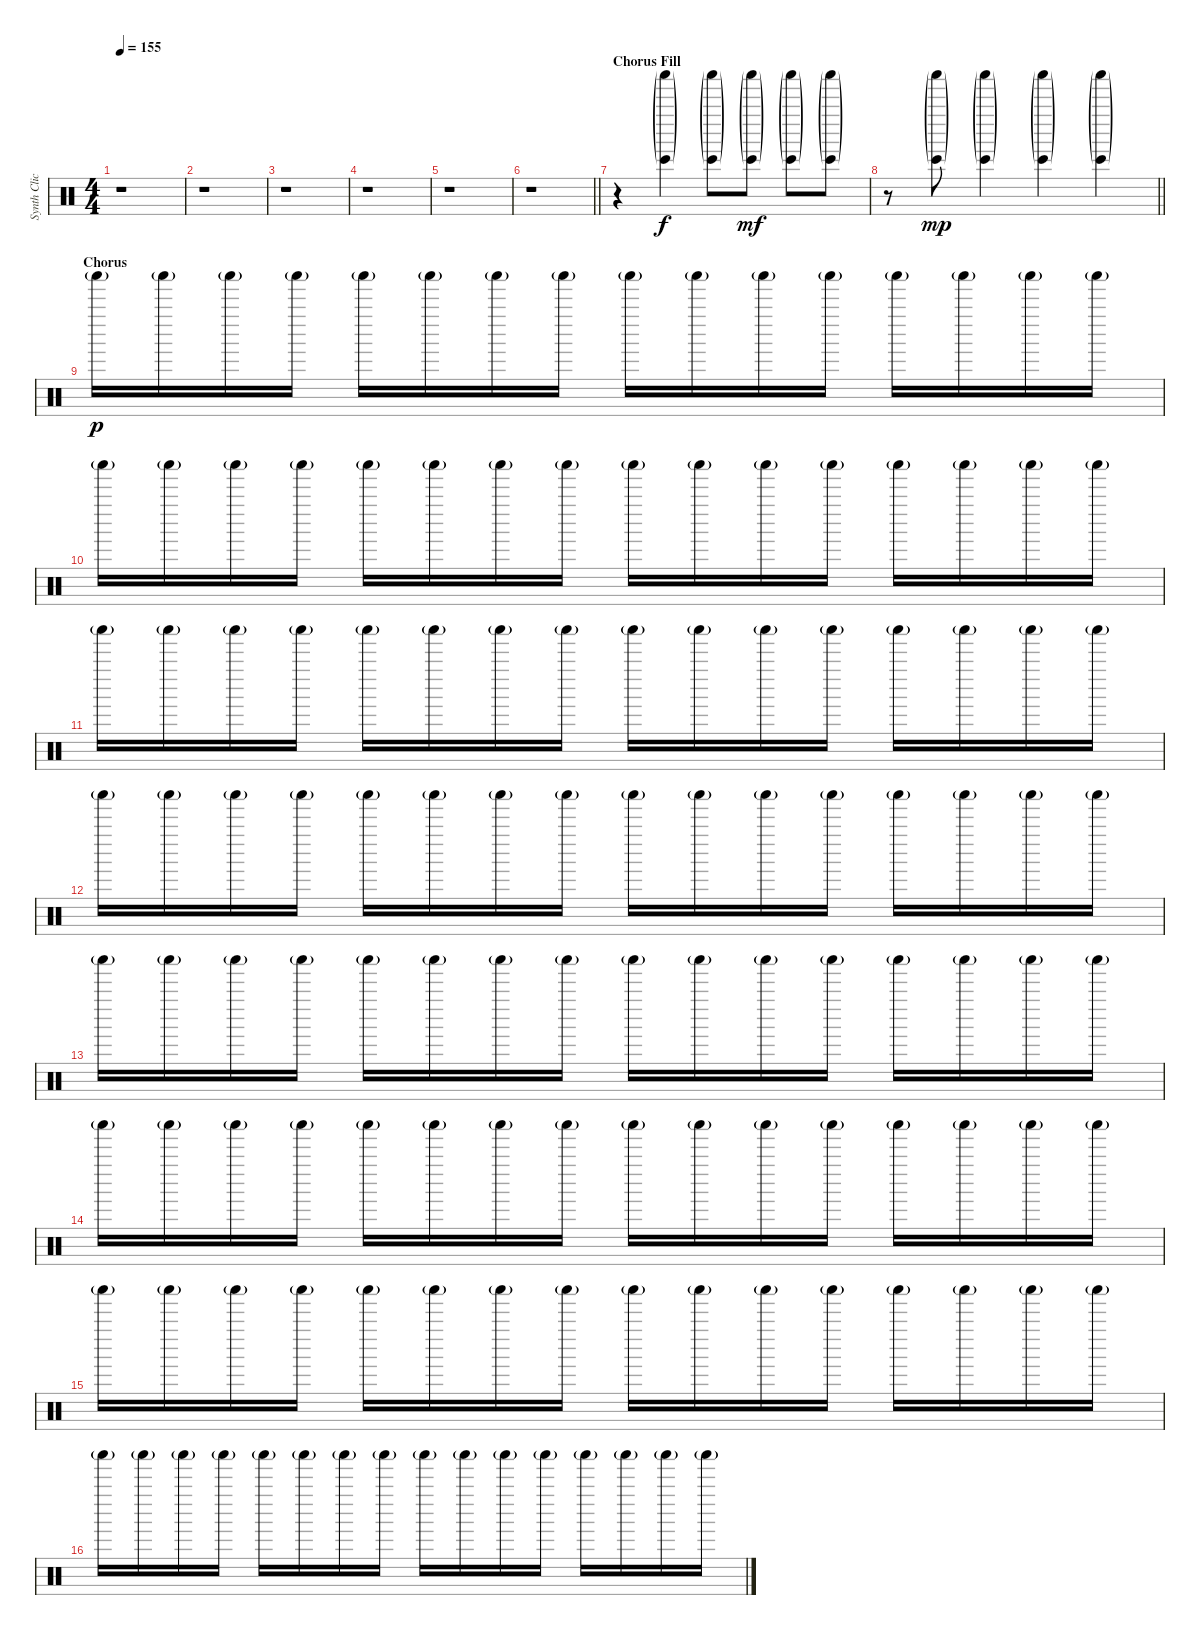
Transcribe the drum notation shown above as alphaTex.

\track ("Synth Click" "Synth Clic") {instrument percussion}
\staff {score}
\articulation defaults
\ts (4 4)
\tempo 155
\clef neutral
\ks c
r.1{dy p} |
r.1 |
r.1 |
r.1 |
r.1 |
\barLineRight lightlight
r.1 |
\section ("" "Chorus Fill")
r.4 ("Bongo High (hit)"{g} "Shaker (hit)"{g}).4{dy f} ("Bongo High (hit)"{g} "Shaker (hit)"{g}).8 ("Bongo High (hit)"{g} "Shaker (hit)"{g}).8{dy mf} ("Bongo High (hit)"{g} "Shaker (hit)"{g}).8 ("Bongo High (hit)"{g} "Shaker (hit)"{g}).8 |
\barLineRight lightlight
r.8 ("Bongo High (hit)"{g} "Shaker (hit)"{g}).8{dy mp} ("Bongo High (hit)"{g} "Shaker (hit)"{g}).4 ("Bongo High (hit)"{g} "Shaker (hit)"{g}).4 ("Bongo High (hit)"{g} "Shaker (hit)"{g}).4 |
\section ("" "Chorus")
"Shaker (hit)"{g}.16{dy p} "Shaker (hit)"{g}.16 "Shaker (hit)"{g}.16 "Shaker (hit)"{g}.16 "Shaker (hit)"{g}.16 "Shaker (hit)"{g}.16 "Shaker (hit)"{g}.16 "Shaker (hit)"{g}.16 "Shaker (hit)"{g}.16 "Shaker (hit)"{g}.16 "Shaker (hit)"{g}.16 "Shaker (hit)"{g}.16 "Shaker (hit)"{g}.16 "Shaker (hit)"{g}.16 "Shaker (hit)"{g}.16 "Shaker (hit)"{g}.16 |
"Shaker (hit)"{g}.16 "Shaker (hit)"{g}.16 "Shaker (hit)"{g}.16 "Shaker (hit)"{g}.16 "Shaker (hit)"{g}.16 "Shaker (hit)"{g}.16 "Shaker (hit)"{g}.16 "Shaker (hit)"{g}.16 "Shaker (hit)"{g}.16 "Shaker (hit)"{g}.16 "Shaker (hit)"{g}.16 "Shaker (hit)"{g}.16 "Shaker (hit)"{g}.16 "Shaker (hit)"{g}.16 "Shaker (hit)"{g}.16 "Shaker (hit)"{g}.16 |
"Shaker (hit)"{g}.16 "Shaker (hit)"{g}.16 "Shaker (hit)"{g}.16 "Shaker (hit)"{g}.16 "Shaker (hit)"{g}.16 "Shaker (hit)"{g}.16 "Shaker (hit)"{g}.16 "Shaker (hit)"{g}.16 "Shaker (hit)"{g}.16 "Shaker (hit)"{g}.16 "Shaker (hit)"{g}.16 "Shaker (hit)"{g}.16 "Shaker (hit)"{g}.16 "Shaker (hit)"{g}.16 "Shaker (hit)"{g}.16 "Shaker (hit)"{g}.16 |
"Shaker (hit)"{g}.16 "Shaker (hit)"{g}.16 "Shaker (hit)"{g}.16 "Shaker (hit)"{g}.16 "Shaker (hit)"{g}.16 "Shaker (hit)"{g}.16 "Shaker (hit)"{g}.16 "Shaker (hit)"{g}.16 "Shaker (hit)"{g}.16 "Shaker (hit)"{g}.16 "Shaker (hit)"{g}.16 "Shaker (hit)"{g}.16 "Shaker (hit)"{g}.16 "Shaker (hit)"{g}.16 "Shaker (hit)"{g}.16 "Shaker (hit)"{g}.16 |
"Shaker (hit)"{g}.16 "Shaker (hit)"{g}.16 "Shaker (hit)"{g}.16 "Shaker (hit)"{g}.16 "Shaker (hit)"{g}.16 "Shaker (hit)"{g}.16 "Shaker (hit)"{g}.16 "Shaker (hit)"{g}.16 "Shaker (hit)"{g}.16 "Shaker (hit)"{g}.16 "Shaker (hit)"{g}.16 "Shaker (hit)"{g}.16 "Shaker (hit)"{g}.16 "Shaker (hit)"{g}.16 "Shaker (hit)"{g}.16 "Shaker (hit)"{g}.16 |
"Shaker (hit)"{g}.16 "Shaker (hit)"{g}.16 "Shaker (hit)"{g}.16 "Shaker (hit)"{g}.16 "Shaker (hit)"{g}.16 "Shaker (hit)"{g}.16 "Shaker (hit)"{g}.16 "Shaker (hit)"{g}.16 "Shaker (hit)"{g}.16 "Shaker (hit)"{g}.16 "Shaker (hit)"{g}.16 "Shaker (hit)"{g}.16 "Shaker (hit)"{g}.16 "Shaker (hit)"{g}.16 "Shaker (hit)"{g}.16 "Shaker (hit)"{g}.16 |
"Shaker (hit)"{g}.16 "Shaker (hit)"{g}.16 "Shaker (hit)"{g}.16 "Shaker (hit)"{g}.16 "Shaker (hit)"{g}.16 "Shaker (hit)"{g}.16 "Shaker (hit)"{g}.16 "Shaker (hit)"{g}.16 "Shaker (hit)"{g}.16 "Shaker (hit)"{g}.16 "Shaker (hit)"{g}.16 "Shaker (hit)"{g}.16 "Shaker (hit)"{g}.16 "Shaker (hit)"{g}.16 "Shaker (hit)"{g}.16 "Shaker (hit)"{g}.16 |
"Shaker (hit)"{g}.16 "Shaker (hit)"{g}.16 "Shaker (hit)"{g}.16 "Shaker (hit)"{g}.16 "Shaker (hit)"{g}.16 "Shaker (hit)"{g}.16 "Shaker (hit)"{g}.16 "Shaker (hit)"{g}.16 "Shaker (hit)"{g}.16 "Shaker (hit)"{g}.16 "Shaker (hit)"{g}.16 "Shaker (hit)"{g}.16 "Shaker (hit)"{g}.16 "Shaker (hit)"{g}.16 "Shaker (hit)"{g}.16 "Shaker (hit)"{g}.16
